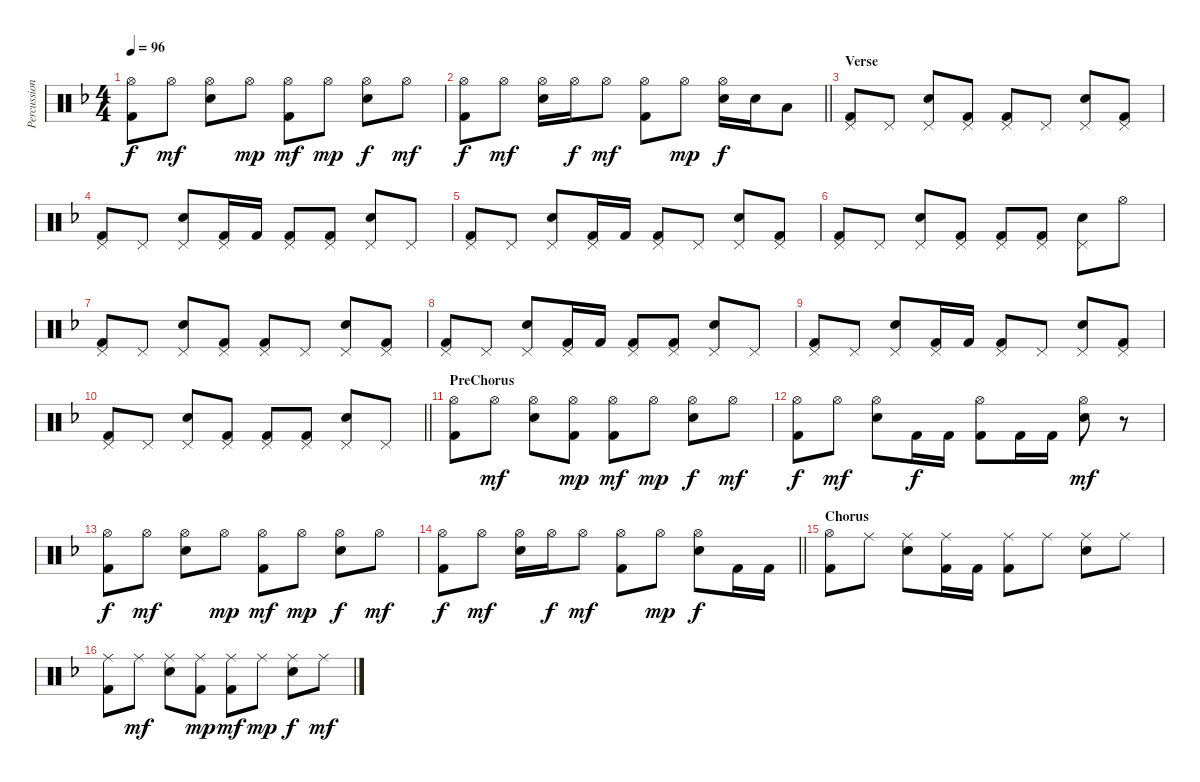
\track ("Percussion" "Percussion") {instrument percussion}
\staff {score}
\articulation defaults
\ts (4 4)
\tempo 96
\clef neutral
\ks dminor
("Hi-Hat (open)" "Kick (hit) 2").8{dy f} "Hi-Hat (open)".8{dy mf} ("Hi-Hat (open)" "Electric Snare (hit)").8 "Hi-Hat (open)".8{dy mp} ("Hi-Hat (open)" "Kick (hit) 2").8{dy mf} "Hi-Hat (open)".8{dy mp} ("Hi-Hat (open)" "Electric Snare (hit)").8{dy f} "Hi-Hat (open)".8{dy mf} |
\barLineRight lightlight
("Hi-Hat (open)" "Kick (hit) 2").8{dy f} "Hi-Hat (open)".8{dy mf} ("Hi-Hat (open)" "Electric Snare (hit)").16 "Hi-Hat (open)".16{dy f} "Hi-Hat (open)".8{dy mf} ("Hi-Hat (open)" "Kick (hit) 2").8 "Hi-Hat (open)".8{dy mp} ("Hi-Hat (open)" "Electric Snare (hit)").16{dy f} "Electric Snare (hit)".16 "Low Floor Tom (hit)".8 |
\section ("" "Verse")
("Pedal Hi-Hat (hit)" "Kick (hit) 2").8 "Pedal Hi-Hat (hit)".8 ("Pedal Hi-Hat (hit)" "Electric Snare (hit)").8 ("Pedal Hi-Hat (hit)" "Kick (hit) 2").8 ("Pedal Hi-Hat (hit)" "Kick (hit) 2").8 "Pedal Hi-Hat (hit)".8 ("Pedal Hi-Hat (hit)" "Electric Snare (hit)").8 ("Pedal Hi-Hat (hit)" "Kick (hit) 2").8 |
("Pedal Hi-Hat (hit)" "Kick (hit) 2").8 "Pedal Hi-Hat (hit)".8 ("Pedal Hi-Hat (hit)" "Electric Snare (hit)").8 ("Pedal Hi-Hat (hit)" "Kick (hit) 2").16 "Kick (hit) 2".16 ("Pedal Hi-Hat (hit)" "Kick (hit) 2").8 ("Pedal Hi-Hat (hit)" "Kick (hit) 2").8 ("Pedal Hi-Hat (hit)" "Electric Snare (hit)").8 "Pedal Hi-Hat (hit)".8 |
("Pedal Hi-Hat (hit)" "Kick (hit) 2").8 "Pedal Hi-Hat (hit)".8 ("Pedal Hi-Hat (hit)" "Electric Snare (hit)").8 ("Pedal Hi-Hat (hit)" "Kick (hit) 2").16 "Kick (hit) 2".16 ("Pedal Hi-Hat (hit)" "Kick (hit) 2").8 "Pedal Hi-Hat (hit)".8 ("Pedal Hi-Hat (hit)" "Electric Snare (hit)").8 ("Pedal Hi-Hat (hit)" "Kick (hit) 2").8 |
("Pedal Hi-Hat (hit)" "Kick (hit) 2").8 "Pedal Hi-Hat (hit)".8 ("Pedal Hi-Hat (hit)" "Electric Snare (hit)").8 ("Pedal Hi-Hat (hit)" "Kick (hit) 2").8 ("Pedal Hi-Hat (hit)" "Kick (hit) 2").8 ("Pedal Hi-Hat (hit)" "Kick (hit) 2").8 ("Pedal Hi-Hat (hit)" "Electric Snare (hit)").8 "Hi-Hat (open)".8 |
("Pedal Hi-Hat (hit)" "Kick (hit) 2").8 "Pedal Hi-Hat (hit)".8 ("Pedal Hi-Hat (hit)" "Electric Snare (hit)").8 ("Pedal Hi-Hat (hit)" "Kick (hit) 2").8 ("Pedal Hi-Hat (hit)" "Kick (hit) 2").8 "Pedal Hi-Hat (hit)".8 ("Pedal Hi-Hat (hit)" "Electric Snare (hit)").8 ("Pedal Hi-Hat (hit)" "Kick (hit) 2").8 |
("Pedal Hi-Hat (hit)" "Kick (hit) 2").8 "Pedal Hi-Hat (hit)".8 ("Pedal Hi-Hat (hit)" "Electric Snare (hit)").8 ("Pedal Hi-Hat (hit)" "Kick (hit) 2").16 "Kick (hit) 2".16 ("Pedal Hi-Hat (hit)" "Kick (hit) 2").8 ("Pedal Hi-Hat (hit)" "Kick (hit) 2").8 ("Pedal Hi-Hat (hit)" "Electric Snare (hit)").8 "Pedal Hi-Hat (hit)".8 |
("Pedal Hi-Hat (hit)" "Kick (hit) 2").8 "Pedal Hi-Hat (hit)".8 ("Pedal Hi-Hat (hit)" "Electric Snare (hit)").8 ("Pedal Hi-Hat (hit)" "Kick (hit) 2").16 "Kick (hit) 2".16 ("Pedal Hi-Hat (hit)" "Kick (hit) 2").8 "Pedal Hi-Hat (hit)".8 ("Pedal Hi-Hat (hit)" "Electric Snare (hit)").8 ("Pedal Hi-Hat (hit)" "Kick (hit) 2").8 |
\barLineRight lightlight
("Pedal Hi-Hat (hit)" "Kick (hit) 2").8 "Pedal Hi-Hat (hit)".8 ("Pedal Hi-Hat (hit)" "Electric Snare (hit)").8 ("Pedal Hi-Hat (hit)" "Kick (hit) 2").8 ("Pedal Hi-Hat (hit)" "Kick (hit) 2").8 ("Pedal Hi-Hat (hit)" "Kick (hit) 2").8 ("Pedal Hi-Hat (hit)" "Electric Snare (hit)").8 "Pedal Hi-Hat (hit)".8 |
\section ("" "PreChorus")
("Hi-Hat (open)" "Kick (hit) 2").8 "Hi-Hat (open)".8{dy mf} ("Hi-Hat (open)" "Electric Snare (hit)").8 ("Hi-Hat (open)" "Kick (hit) 2").8{dy mp} ("Hi-Hat (open)" "Kick (hit) 2").8{dy mf} "Hi-Hat (open)".8{dy mp} ("Hi-Hat (open)" "Electric Snare (hit)").8{dy f} "Hi-Hat (open)".8{dy mf} |
("Hi-Hat (open)" "Kick (hit) 2").8{dy f} "Hi-Hat (open)".8{dy mf} ("Hi-Hat (open)" "Electric Snare (hit)").8 "Kick (hit) 2".16{dy f} "Kick (hit) 2".16 ("Hi-Hat (open)" "Kick (hit) 2").8 "Kick (hit) 2".16 "Kick (hit) 2".16 ("Hi-Hat (open)" "Electric Snare (hit)").8{dy mf} r.8 |
("Hi-Hat (open)" "Kick (hit) 2").8{dy f} "Hi-Hat (open)".8{dy mf} ("Hi-Hat (open)" "Electric Snare (hit)").8 "Hi-Hat (open)".8{dy mp} ("Hi-Hat (open)" "Kick (hit) 2").8{dy mf} "Hi-Hat (open)".8{dy mp} ("Hi-Hat (open)" "Electric Snare (hit)").8{dy f} "Hi-Hat (open)".8{dy mf} |
\barLineRight lightlight
("Hi-Hat (open)" "Kick (hit) 2").8{dy f} "Hi-Hat (open)".8{dy mf} ("Hi-Hat (open)" "Electric Snare (hit)").16 "Hi-Hat (open)".16{dy f} "Hi-Hat (open)".8{dy mf} ("Hi-Hat (open)" "Kick (hit) 2").8 "Hi-Hat (open)".8{dy mp} ("Hi-Hat (open)" "Electric Snare (hit)").8{dy f} "Kick (hit) 2".16 "Kick (hit) 2".16 |
\section ("" "Chorus")
("Hi-Hat (open)" "Kick (hit) 2").8 "Ride (middle)".8 ("Ride (middle)" "Electric Snare (hit)").8 ("Ride (middle)" "Kick (hit) 2").16 "Kick (hit) 2".16 ("Ride (middle)" "Kick (hit) 2").8 "Ride (middle)".8 ("Ride (middle)" "Electric Snare (hit)").8 "Ride (middle)".8 |
("Ride (middle)" "Kick (hit) 2").8 "Ride (middle)".8{dy mf} ("Ride (middle)" "Electric Snare (hit)").8 ("Ride (middle)" "Kick (hit) 2").8{dy mp} ("Ride (middle)" "Kick (hit) 2").8{dy mf} "Ride (middle)".8{dy mp} ("Ride (middle)" "Electric Snare (hit)").8{dy f} "Ride (middle)".8{dy mf}
